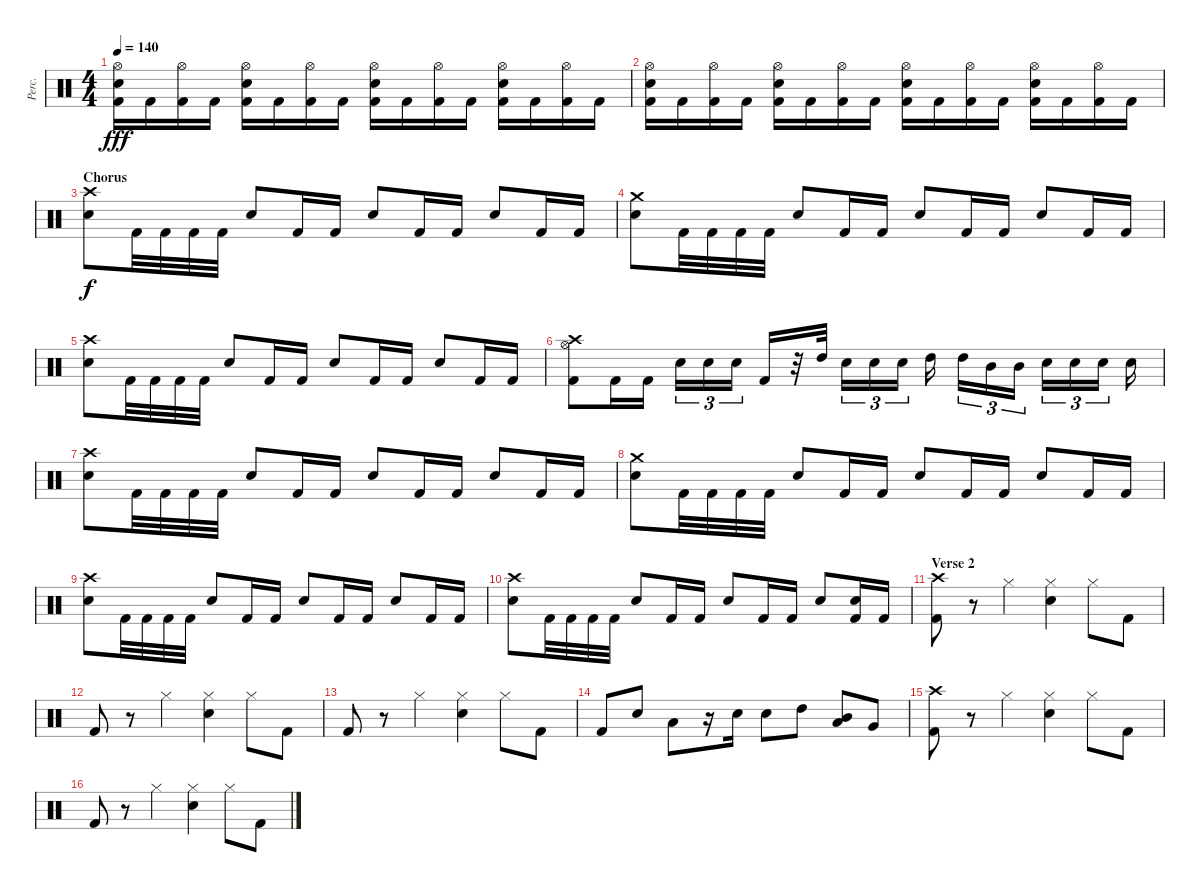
\track ("Perc." "Perc.") {instrument percussion}
\staff {score}
\articulation defaults
\ts (4 4)
\tempo 140
\clef neutral
\ks c
("Hi-Hat (open)" "Electric Snare (hit)" "Kick (hit) 2").16{dy fff} "Kick (hit) 2".16 ("Hi-Hat (open)" "Kick (hit) 2").16 "Kick (hit) 2".16 ("Hi-Hat (open)" "Electric Snare (hit)" "Kick (hit) 2").16 "Kick (hit) 2".16 ("Hi-Hat (open)" "Kick (hit) 2").16 "Kick (hit) 2".16 ("Hi-Hat (open)" "Electric Snare (hit)" "Kick (hit) 2").16 "Kick (hit) 2".16 ("Hi-Hat (open)" "Kick (hit) 2").16 "Kick (hit) 2".16 ("Hi-Hat (open)" "Electric Snare (hit)" "Kick (hit) 2").16 "Kick (hit) 2".16 ("Hi-Hat (open)" "Kick (hit) 2").16 "Kick (hit) 2".16 |
("Hi-Hat (open)" "Electric Snare (hit)" "Kick (hit) 2").16 "Kick (hit) 2".16 ("Hi-Hat (open)" "Kick (hit) 2").16 "Kick (hit) 2".16 ("Hi-Hat (open)" "Electric Snare (hit)" "Kick (hit) 2").16 "Kick (hit) 2".16 ("Hi-Hat (open)" "Kick (hit) 2").16 "Kick (hit) 2".16 ("Hi-Hat (open)" "Electric Snare (hit)" "Kick (hit) 2").16 "Kick (hit) 2".16 ("Hi-Hat (open)" "Kick (hit) 2").16 "Kick (hit) 2".16 ("Hi-Hat (open)" "Electric Snare (hit)" "Kick (hit) 2").16 "Kick (hit) 2".16 ("Hi-Hat (open)" "Kick (hit) 2").16 "Kick (hit) 2".16 |
\section ("" "Chorus")
("Crash high (hit)" "Electric Snare (hit)").8{dy f} "Kick (hit) 2".32 "Kick (hit) 2".32 "Kick (hit) 2".32 "Kick (hit) 2".32 "Electric Snare (hit)".8 "Kick (hit) 2".16 "Kick (hit) 2".16 "Electric Snare (hit)".8 "Kick (hit) 2".16 "Kick (hit) 2".16 "Electric Snare (hit)".8 "Kick (hit) 2".16 "Kick (hit) 2".16 |
("Crash medium (hit)" "Electric Snare (hit)").8 "Kick (hit) 2".32 "Kick (hit) 2".32 "Kick (hit) 2".32 "Kick (hit) 2".32 "Electric Snare (hit)".8 "Kick (hit) 2".16 "Kick (hit) 2".16 "Electric Snare (hit)".8 "Kick (hit) 2".16 "Kick (hit) 2".16 "Electric Snare (hit)".8 "Kick (hit) 2".16 "Kick (hit) 2".16 |
("Crash high (hit)" "Electric Snare (hit)").8 "Kick (hit) 2".32 "Kick (hit) 2".32 "Kick (hit) 2".32 "Kick (hit) 2".32 "Electric Snare (hit)".8 "Kick (hit) 2".16 "Kick (hit) 2".16 "Electric Snare (hit)".8 "Kick (hit) 2".16 "Kick (hit) 2".16 "Electric Snare (hit)".8 "Kick (hit) 2".16 "Kick (hit) 2".16 |
("Crash high (hit)" "Hi-Hat (open)" "Kick (hit) 2").8 "Kick (hit) 2".16 "Kick (hit) 2".16 "Electric Snare (hit)".16{tu (3 2)} "Electric Snare (hit)".16{tu (3 2)} "Electric Snare (hit)".16{tu (3 2)} "Kick (hit) 2".16 r.32 "High Tom (hit)".32 "Electric Snare (hit)".16{tu (3 2)} "Electric Snare (hit)".16{tu (3 2)} "Electric Snare (hit)".16{tu (3 2)} "High Tom (hit)".16 "High Tom (hit)".16{tu (3 2)} "Mid Tom (hit)".16{tu (3 2)} "Mid Tom (hit)".16{tu (3 2)} "Electric Snare (hit)".16{tu (3 2)} "Electric Snare (hit)".16{tu (3 2)} "Electric Snare (hit)".16{tu (3 2)} "Electric Snare (hit)".16 |
("Crash high (hit)" "Electric Snare (hit)").8 "Kick (hit) 2".32 "Kick (hit) 2".32 "Kick (hit) 2".32 "Kick (hit) 2".32 "Electric Snare (hit)".8 "Kick (hit) 2".16 "Kick (hit) 2".16 "Electric Snare (hit)".8 "Kick (hit) 2".16 "Kick (hit) 2".16 "Electric Snare (hit)".8 "Kick (hit) 2".16 "Kick (hit) 2".16 |
("Crash medium (hit)" "Electric Snare (hit)").8 "Kick (hit) 2".32 "Kick (hit) 2".32 "Kick (hit) 2".32 "Kick (hit) 2".32 "Electric Snare (hit)".8 "Kick (hit) 2".16 "Kick (hit) 2".16 "Electric Snare (hit)".8 "Kick (hit) 2".16 "Kick (hit) 2".16 "Electric Snare (hit)".8 "Kick (hit) 2".16 "Kick (hit) 2".16 |
("Crash high (hit)" "Electric Snare (hit)").8 "Kick (hit) 2".32 "Kick (hit) 2".32 "Kick (hit) 2".32 "Kick (hit) 2".32 "Electric Snare (hit)".8 "Kick (hit) 2".16 "Kick (hit) 2".16 "Electric Snare (hit)".8 "Kick (hit) 2".16 "Kick (hit) 2".16 "Electric Snare (hit)".8 "Kick (hit) 2".16 "Kick (hit) 2".16 |
("Crash high (hit)" "Electric Snare (hit)").8 "Kick (hit) 2".32 "Kick (hit) 2".32 "Kick (hit) 2".32 "Kick (hit) 2".32 "Electric Snare (hit)".8 "Kick (hit) 2".16 "Kick (hit) 2".16 "Electric Snare (hit)".8 "Kick (hit) 2".16 "Kick (hit) 2".16 "Electric Snare (hit)".8 ("Electric Snare (hit)" "Kick (hit) 2").16 "Kick (hit) 2".16 |
\section ("" "Verse 2")
("Crash high (hit)" "Kick (hit) 2").8 r.8 "Hi-Hat (closed)".4 ("Electric Snare (hit)" "Hi-Hat (closed)").4 "Hi-Hat (closed)".8 "Kick (hit) 2".8 |
"Kick (hit) 2".8 r.8 "Hi-Hat (closed)".4 ("Electric Snare (hit)" "Hi-Hat (closed)").4 "Hi-Hat (closed)".8 "Kick (hit) 2".8 |
"Kick (hit) 2".8 r.8 "Hi-Hat (closed)".4 ("Electric Snare (hit)" "Hi-Hat (closed)").4 "Hi-Hat (closed)".8 "Kick (hit) 2".8 |
"Kick (hit) 2".8 "Electric Snare (hit)".8 "Low Tom (hit)".8 r.16 "Electric Snare (hit)".16 "Electric Snare (hit)".8 "High Tom (hit)".8 ("Low Tom (hit)" "Mid Tom (hit)").8 "Very Low Tom (hit)".8 |
("Crash high (hit)" "Kick (hit) 2").8 r.8 "Hi-Hat (closed)".4 ("Electric Snare (hit)" "Hi-Hat (closed)").4 "Hi-Hat (closed)".8 "Kick (hit) 2".8 |
"Kick (hit) 2".8 r.8 "Hi-Hat (closed)".4 ("Electric Snare (hit)" "Hi-Hat (closed)").4 "Hi-Hat (closed)".8 "Kick (hit) 2".8
